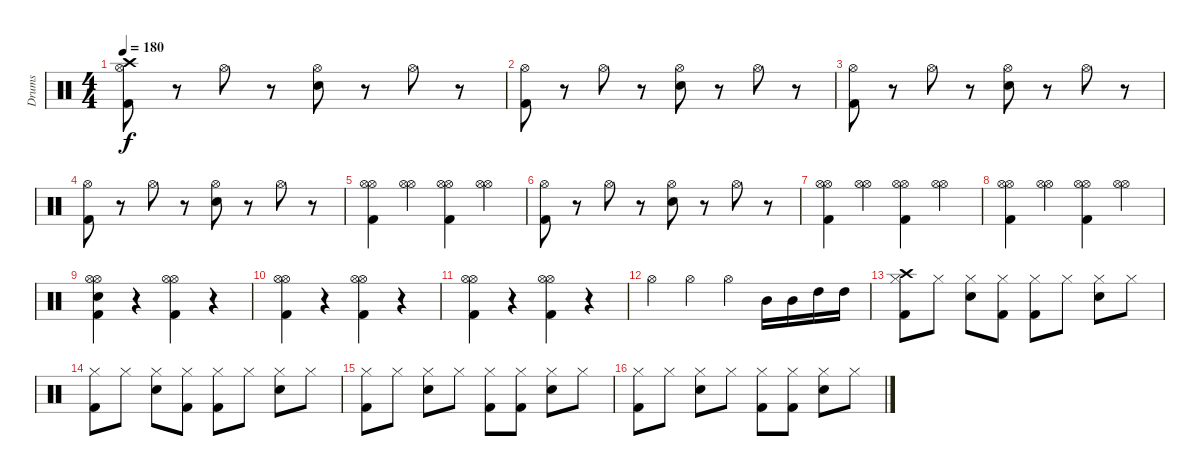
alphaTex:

\track ("Drums" "Drums") {instrument percussion}
\staff {score}
\articulation defaults
\ts (4 4)
\tempo 180
\clef neutral
\ks c
("Crash high (hit)" "Hi-Hat (open)" "Kick (hit) 2").8{dy f} r.8 "Hi-Hat (open)".8 r.8 ("Hi-Hat (open)" "Snare (hit) 2").8 r.8 "Hi-Hat (open)".8 r.8 |
("Hi-Hat (open)" "Kick (hit) 2").8 r.8 "Hi-Hat (open)".8 r.8 ("Hi-Hat (open)" "Snare (hit) 2").8 r.8 "Hi-Hat (open)".8 r.8 |
("Hi-Hat (open)" "Kick (hit) 2").8 r.8 "Hi-Hat (open)".8 r.8 ("Hi-Hat (open)" "Snare (hit) 2").8 r.8 "Hi-Hat (open)".8 r.8 |
("Hi-Hat (open)" "Kick (hit) 2").8 r.8 "Hi-Hat (open)".8 r.8 ("Hi-Hat (open)" "Snare (hit) 2").8 r.8 "Hi-Hat (open)".8 r.8 |
("Hi-Hat (open)" "Hi-Hat (open)" "Kick (hit) 2").4 ("Hi-Hat (open)" "Hi-Hat (open)").4 ("Hi-Hat (open)" "Hi-Hat (open)" "Kick (hit) 2").4 ("Hi-Hat (open)" "Hi-Hat (open)").4 |
("Hi-Hat (open)" "Kick (hit) 2").8 r.8 "Hi-Hat (open)".8 r.8 ("Hi-Hat (open)" "Snare (hit) 2").8 r.8 "Hi-Hat (open)".8 r.8 |
("Hi-Hat (open)" "Hi-Hat (open)" "Kick (hit) 2").4 ("Hi-Hat (open)" "Hi-Hat (open)").4 ("Hi-Hat (open)" "Hi-Hat (open)" "Kick (hit) 2").4 ("Hi-Hat (open)" "Hi-Hat (open)").4 |
("Hi-Hat (open)" "Hi-Hat (open)" "Kick (hit) 2").4 ("Hi-Hat (open)" "Hi-Hat (open)").4 ("Hi-Hat (open)" "Hi-Hat (open)" "Kick (hit) 2").4 ("Hi-Hat (open)" "Hi-Hat (open)").4 |
("Hi-Hat (open)" "Hi-Hat (open)" "Snare (hit) 2" "Kick (hit) 2").4 r.4 ("Hi-Hat (open)" "Hi-Hat (open)" "Kick (hit) 2").4 r.4 |
("Hi-Hat (open)" "Hi-Hat (open)" "Kick (hit) 2").4 r.4 ("Hi-Hat (open)" "Hi-Hat (open)" "Kick (hit) 2").4 r.4 |
("Hi-Hat (open)" "Hi-Hat (open)" "Kick (hit) 2").4 r.4 ("Hi-Hat (open)" "Hi-Hat (open)" "Kick (hit) 2").4 r.4 |
"Hi-Hat (open)".4 "Hi-Hat (open)".4 "Hi-Hat (open)".4 "Mid Tom (hit)".16 "Mid Tom (hit)".16 "High Tom (hit)".16 "High Tom (hit)".16 |
("Crash high (hit)" "Hi-Hat (closed)" "Kick (hit) 2").8 "Hi-Hat (closed)".8 ("Hi-Hat (closed)" "Snare (hit) 2").8 ("Hi-Hat (closed)" "Kick (hit) 2").8 ("Hi-Hat (closed)" "Kick (hit) 2").8 "Hi-Hat (closed)".8 ("Hi-Hat (closed)" "Snare (hit) 2").8 "Hi-Hat (closed)".8 |
("Hi-Hat (closed)" "Kick (hit) 2").8 "Hi-Hat (closed)".8 ("Hi-Hat (closed)" "Snare (hit) 2").8 ("Hi-Hat (closed)" "Kick (hit) 2").8 ("Hi-Hat (closed)" "Kick (hit) 2").8 "Hi-Hat (closed)".8 ("Hi-Hat (closed)" "Snare (hit) 2").8 "Hi-Hat (closed)".8 |
("Hi-Hat (closed)" "Kick (hit) 2").8 "Hi-Hat (closed)".8 ("Hi-Hat (closed)" "Snare (hit) 2").8 "Hi-Hat (closed)".8 ("Hi-Hat (closed)" "Kick (hit) 2").8 ("Hi-Hat (closed)" "Kick (hit) 2").8 ("Hi-Hat (closed)" "Snare (hit) 2").8 "Hi-Hat (closed)".8 |
("Hi-Hat (closed)" "Kick (hit) 2").8 "Hi-Hat (closed)".8 ("Hi-Hat (closed)" "Snare (hit) 2").8 "Hi-Hat (closed)".8 ("Hi-Hat (closed)" "Kick (hit) 2").8 ("Hi-Hat (closed)" "Kick (hit) 2").8 ("Hi-Hat (closed)" "Snare (hit) 2").8 "Hi-Hat (closed)".8
